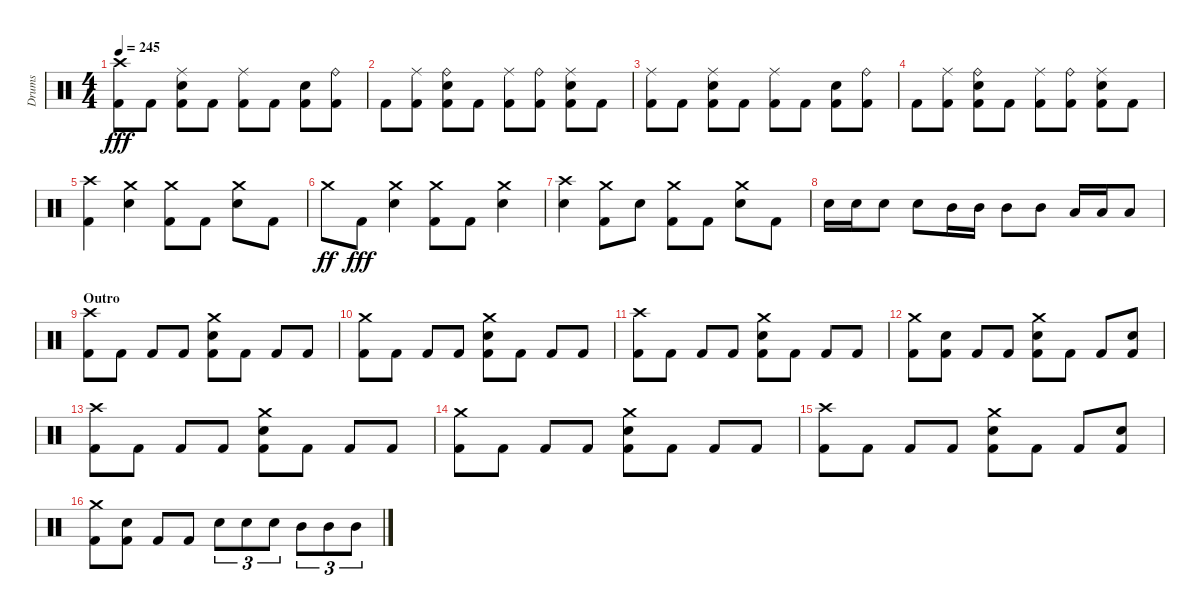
\track ("Drums" "Drums") {instrument percussion}
\staff {score}
\articulation defaults
\ts (4 4)
\tempo 245
\clef neutral
\ks aminor
("Kick (hit) 2" "Crash high (hit)").8{dy fff} "Kick (hit) 2".8 ("Kick (hit) 2" "Snare (hit) 2" "Ride (middle)").8 "Kick (hit) 2".8 ("Kick (hit) 2" "Ride (middle)").8 "Kick (hit) 2".8 ("Kick (hit) 2" "Snare (hit) 2").8 ("Kick (hit) 2" "Ride (bell)").8 |
"Kick (hit) 2".8 ("Kick (hit) 2" "Ride (middle)").8 ("Kick (hit) 2" "Snare (hit) 2" "Ride (bell)").8 "Kick (hit) 2".8 ("Kick (hit) 2" "Ride (middle)").8 ("Kick (hit) 2" "Ride (bell)").8 ("Kick (hit) 2" "Snare (hit) 2" "Ride (middle)").8 "Kick (hit) 2".8 |
("Kick (hit) 2" "Ride (middle)").8 "Kick (hit) 2".8 ("Kick (hit) 2" "Snare (hit) 2" "Ride (middle)").8 "Kick (hit) 2".8 ("Kick (hit) 2" "Ride (middle)").8 "Kick (hit) 2".8 ("Kick (hit) 2" "Snare (hit) 2").8 ("Kick (hit) 2" "Ride (bell)").8 |
"Kick (hit) 2".8 ("Kick (hit) 2" "Ride (middle)").8 ("Kick (hit) 2" "Snare (hit) 2" "Ride (bell)").8 "Kick (hit) 2".8 ("Kick (hit) 2" "Ride (middle)").8 ("Kick (hit) 2" "Ride (bell)").8 ("Kick (hit) 2" "Snare (hit) 2" "Ride (middle)").8 "Kick (hit) 2".8 |
("Kick (hit) 2" "Crash high (hit)").4 ("Snare (hit) 2" "Crash medium (hit)").4 ("Kick (hit) 2" "Crash medium (hit)").8 "Kick (hit) 2".8 ("Snare (hit) 2" "Crash medium (hit)").8 "Kick (hit) 2".8 |
"Crash medium (hit)".8{dy ff} "Kick (hit) 2".8{dy fff} ("Snare (hit) 2" "Crash medium (hit)").4 ("Kick (hit) 2" "Crash medium (hit)").8 "Kick (hit) 2".8 ("Snare (hit) 2" "Crash medium (hit)").4 |
("Snare (hit) 2" "Crash high (hit)").4 ("Kick (hit) 2" "Crash medium (hit)").8 "Snare (hit) 2".8 ("Kick (hit) 2" "Crash medium (hit)").8 "Kick (hit) 2".8 ("Snare (hit) 2" "Crash medium (hit)").8 "Kick (hit) 2".8 |
"Snare (hit) 2".16 "Snare (hit) 2".16 "Snare (hit) 2".8 "Snare (hit) 2".8 "Mid Tom (hit)".16 "Mid Tom (hit)".16 "Mid Tom (hit)".8 "Mid Tom (hit)".8 "Low Tom (hit)".16 "Low Tom (hit)".16 "Low Tom (hit)".8 |
\section ("" "Outro")
("Kick (hit) 2" "Crash high (hit)").8 "Kick (hit) 2".8 "Kick (hit) 2".8 "Kick (hit) 2".8 ("Kick (hit) 2" "Snare (hit) 2" "Crash medium (hit)").8 "Kick (hit) 2".8 "Kick (hit) 2".8 "Kick (hit) 2".8 |
("Kick (hit) 2" "Crash medium (hit)").8 "Kick (hit) 2".8 "Kick (hit) 2".8 "Kick (hit) 2".8 ("Kick (hit) 2" "Snare (hit) 2" "Crash medium (hit)").8 "Kick (hit) 2".8 "Kick (hit) 2".8 "Kick (hit) 2".8 |
("Kick (hit) 2" "Crash high (hit)").8 "Kick (hit) 2".8 "Kick (hit) 2".8 "Kick (hit) 2".8 ("Kick (hit) 2" "Snare (hit) 2" "Crash medium (hit)").8 "Kick (hit) 2".8 "Kick (hit) 2".8 "Kick (hit) 2".8 |
("Kick (hit) 2" "Crash medium (hit)").8 ("Kick (hit) 2" "Snare (hit) 2").8 "Kick (hit) 2".8 "Kick (hit) 2".8 ("Kick (hit) 2" "Snare (hit) 2" "Crash medium (hit)").8 "Kick (hit) 2".8 "Kick (hit) 2".8 ("Kick (hit) 2" "Snare (hit) 2").8 |
("Kick (hit) 2" "Crash high (hit)").8 "Kick (hit) 2".8 "Kick (hit) 2".8 "Kick (hit) 2".8 ("Kick (hit) 2" "Snare (hit) 2" "Crash medium (hit)").8 "Kick (hit) 2".8 "Kick (hit) 2".8 "Kick (hit) 2".8 |
("Kick (hit) 2" "Crash medium (hit)").8 "Kick (hit) 2".8 "Kick (hit) 2".8 "Kick (hit) 2".8 ("Kick (hit) 2" "Snare (hit) 2" "Crash medium (hit)").8 "Kick (hit) 2".8 "Kick (hit) 2".8 "Kick (hit) 2".8 |
("Kick (hit) 2" "Crash high (hit)").8 "Kick (hit) 2".8 "Kick (hit) 2".8 "Kick (hit) 2".8 ("Kick (hit) 2" "Snare (hit) 2" "Crash medium (hit)").8 "Kick (hit) 2".8 "Kick (hit) 2".8 ("Kick (hit) 2" "Snare (hit) 2").8 |
("Kick (hit) 2" "Crash medium (hit)").8 ("Kick (hit) 2" "Snare (hit) 2").8 "Kick (hit) 2".8 "Kick (hit) 2".8 "Snare (hit) 2".8{tu (3 2)} "Snare (hit) 2".8{tu (3 2)} "Snare (hit) 2".8{tu (3 2)} "Mid Tom (hit)".8{tu (3 2)} "Mid Tom (hit)".8{tu (3 2)} "Mid Tom (hit)".8{tu (3 2)}
